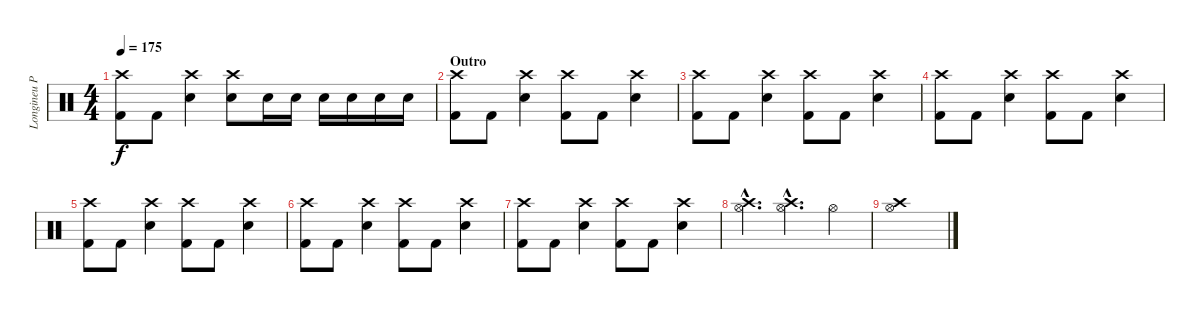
\track ("Longineu Parsons III Drums" "Longineu P") {instrument percussion}
\staff {score}
\articulation defaults
\ts (4 4)
\tempo 175
\clef neutral
\ks c
("Kick (hit) 2" "Crash high (hit)").8{dy f} "Kick (hit) 2".8 ("Snare (hit) 2" "Crash high (hit)").4 ("Crash high (hit)" "Snare (hit) 2").8 "Snare (hit) 2".16 "Snare (hit) 2".16 "Snare (hit) 2".16 "Snare (hit) 2".16 "Snare (hit) 2".16 "Snare (hit) 2".16 |
\section ("" "Outro")
("Crash high (hit)" "Kick (hit) 2").8 "Kick (hit) 2".8 ("Crash high (hit)" "Snare (hit) 2").4 ("Crash high (hit)" "Kick (hit) 2").8 "Kick (hit) 2".8 ("Crash high (hit)" "Snare (hit) 2").4 |
("Crash high (hit)" "Kick (hit) 2").8 "Kick (hit) 2".8 ("Crash high (hit)" "Snare (hit) 2").4 ("Crash high (hit)" "Kick (hit) 2").8 "Kick (hit) 2".8 ("Crash high (hit)" "Snare (hit) 2").4 |
("Crash high (hit)" "Kick (hit) 2").8 "Kick (hit) 2".8 ("Crash high (hit)" "Snare (hit) 2").4 ("Crash high (hit)" "Kick (hit) 2").8 "Kick (hit) 2".8 ("Crash high (hit)" "Snare (hit) 2").4 |
("Crash high (hit)" "Kick (hit) 2").8 "Kick (hit) 2".8 ("Crash high (hit)" "Snare (hit) 2").4 ("Crash high (hit)" "Kick (hit) 2").8 "Kick (hit) 2".8 ("Crash high (hit)" "Snare (hit) 2").4 |
("Crash high (hit)" "Kick (hit) 2").8 "Kick (hit) 2".8 ("Crash high (hit)" "Snare (hit) 2").4 ("Crash high (hit)" "Kick (hit) 2").8 "Kick (hit) 2".8 ("Crash high (hit)" "Snare (hit) 2").4 |
("Crash high (hit)" "Kick (hit) 2").8 "Kick (hit) 2".8 ("Crash high (hit)" "Snare (hit) 2").4 ("Crash high (hit)" "Kick (hit) 2").8 "Kick (hit) 2".8 ("Crash high (hit)" "Snare (hit) 2").4 |
("Hi-Hat (open)"{hac} "Crash high (hit)"{hac}).4{d} ("Crash high (hit)"{hac} "Hi-Hat (open)"{hac}).4{d} "Hi-Hat (open)".4 |
("Crash high (hit)" "Hi-Hat (open)").1
